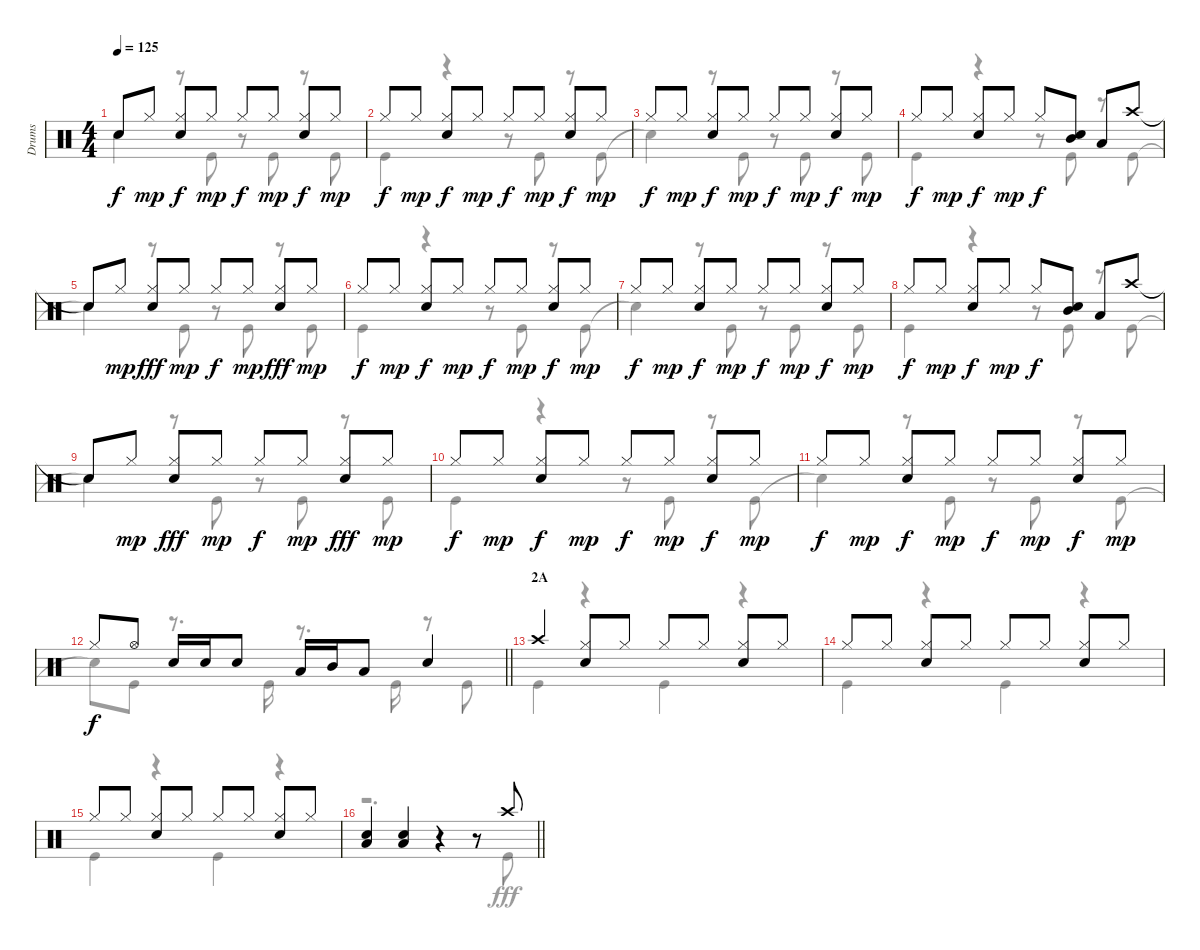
\track ("Drums" "Drums") {instrument percussion}
\staff {score}
\articulation defaults
\voice
\ts (4 4)
\tempo 125
\clef neutral
\ks c "Snare (hit)"{t}.8{dy f} "Hi-Hat (closed)".8{dy mp}
("Hi-Hat (closed)" "Snare (hit) 2").8{dy f} "Hi-Hat (closed)".8{dy mp} "Hi-Hat (closed)".8{dy f} "Hi-Hat (closed)".8{dy mp} ("Hi-Hat (closed)" "Snare (hit) 2").8{dy f} "Hi-Hat (closed)".8{dy mp} |
"Hi-Hat (closed)".8{dy f} "Hi-Hat (closed)".8{dy mp} ("Hi-Hat (closed)" "Snare (hit) 2").8{dy f} "Hi-Hat (closed)".8{dy mp} "Hi-Hat (closed)".8{dy f} "Hi-Hat (closed)".8{dy mp} ("Hi-Hat (closed)" "Snare (hit) 2").8{dy f} "Hi-Hat (closed)".8{dy mp} |
"Hi-Hat (closed)".8{dy f} "Hi-Hat (closed)".8{dy mp} ("Hi-Hat (closed)" "Snare (hit) 2").8{dy f} "Hi-Hat (closed)".8{dy mp} "Hi-Hat (closed)".8{dy f} "Hi-Hat (closed)".8{dy mp} ("Hi-Hat (closed)" "Snare (hit) 2").8{dy f} "Hi-Hat (closed)".8{dy mp} |
"Hi-Hat (closed)".8{dy f} "Hi-Hat (closed)".8{dy mp} ("Hi-Hat (closed)" "Snare (hit) 2").8{dy f} "Hi-Hat (closed)".8{dy mp} "Hi-Hat (closed)".8{dy f} ("Snare (hit) 2" "Mid Tom (hit)").8 "Low Tom (hit)".8 "Crash high (hit)".8 |
"Snare (hit)"{t}.8 "Hi-Hat (closed)".8{dy mp} ("Hi-Hat (closed)" "Snare (hit) 2").8{dy fff} "Hi-Hat (closed)".8{dy mp} "Hi-Hat (closed)".8{dy f} "Hi-Hat (closed)".8{dy mp} ("Hi-Hat (closed)" "Snare (hit) 2").8{dy fff} "Hi-Hat (closed)".8{dy mp} |
"Hi-Hat (closed)".8{dy f} "Hi-Hat (closed)".8{dy mp} ("Hi-Hat (closed)" "Snare (hit) 2").8{dy f} "Hi-Hat (closed)".8{dy mp} "Hi-Hat (closed)".8{dy f} "Hi-Hat (closed)".8{dy mp} ("Hi-Hat (closed)" "Snare (hit) 2").8{dy f} "Hi-Hat (closed)".8{dy mp} |
"Hi-Hat (closed)".8{dy f} "Hi-Hat (closed)".8{dy mp} ("Hi-Hat (closed)" "Snare (hit) 2").8{dy f} "Hi-Hat (closed)".8{dy mp} "Hi-Hat (closed)".8{dy f} "Hi-Hat (closed)".8{dy mp} ("Hi-Hat (closed)" "Snare (hit) 2").8{dy f} "Hi-Hat (closed)".8{dy mp} |
"Hi-Hat (closed)".8{dy f} "Hi-Hat (closed)".8{dy mp} ("Hi-Hat (closed)" "Snare (hit) 2").8{dy f} "Hi-Hat (closed)".8{dy mp} "Hi-Hat (closed)".8{dy f} ("Snare (hit) 2" "Mid Tom (hit)").8 "Low Tom (hit)".8 "Crash high (hit)".8 |
"Snare (hit)"{t}.8 "Hi-Hat (closed)".8{dy mp} ("Hi-Hat (closed)" "Snare (hit) 2").8{dy fff} "Hi-Hat (closed)".8{dy mp} "Hi-Hat (closed)".8{dy f} "Hi-Hat (closed)".8{dy mp} ("Hi-Hat (closed)" "Snare (hit) 2").8{dy fff} "Hi-Hat (closed)".8{dy mp} |
"Hi-Hat (closed)".8{dy f} "Hi-Hat (closed)".8{dy mp} ("Hi-Hat (closed)" "Snare (hit) 2").8{dy f} "Hi-Hat (closed)".8{dy mp} "Hi-Hat (closed)".8{dy f} "Hi-Hat (closed)".8{dy mp} ("Hi-Hat (closed)" "Snare (hit) 2").8{dy f} "Hi-Hat (closed)".8{dy mp} |
"Hi-Hat (closed)".8{dy f} "Hi-Hat (closed)".8{dy mp} ("Hi-Hat (closed)" "Snare (hit) 2").8{dy f} "Hi-Hat (closed)".8{dy mp} "Hi-Hat (closed)".8{dy f} "Hi-Hat (closed)".8{dy mp} ("Hi-Hat (closed)" "Snare (hit) 2").8{dy f} "Hi-Hat (closed)".8{dy mp} |
\barLineRight lightlight "Hi-Hat (closed)".8{dy f} "Hi-Hat (open)".8 "Snare (hit) 2".16 "Snare (hit) 2".16 "Snare (hit) 2".8 "Low Tom (hit)".16 "Mid Tom (hit)".16 "Low Tom (hit)".8 "Snare (hit) 2".4
|
\section ("" "2A")
"Crash high (hit)".4 ("Hi-Hat (closed)" "Snare (hit) 2").8 "Hi-Hat (closed)".8 "Hi-Hat (closed)".8 "Hi-Hat (closed)".8 ("Hi-Hat (closed)" "Snare (hit) 2").8 "Hi-Hat (closed)".8 |
"Hi-Hat (closed)".8 "Hi-Hat (closed)".8 ("Hi-Hat (closed)" "Snare (hit) 2").8 "Hi-Hat (closed)".8 "Hi-Hat (closed)".8 "Hi-Hat (closed)".8 ("Hi-Hat (closed)" "Snare (hit) 2").8 "Hi-Hat (closed)".8 |
"Hi-Hat (closed)".8 "Hi-Hat (closed)".8 ("Hi-Hat (closed)" "Snare (hit) 2").8 "Hi-Hat (closed)".8 "Hi-Hat (closed)".8 "Hi-Hat (closed)".8 ("Hi-Hat (closed)" "Snare (hit) 2").8 "Hi-Hat (closed)".8 |
\barLineRight lightlight
("Low Tom (hit)" "Snare (hit) 2").4 ("Low Tom (hit)" "Snare (hit) 2").4 r.4 r.8 "Crash high (hit)".8
\voice
\clef neutral
\ottava regular
\simile none
\ks c "Snare (hit)"{t}.4{dy f}
r.8 "Kick (hit)".8 r.8 "Kick (hit)".8 r.8 "Kick (hit)".8 |
"Kick (hit)".4 r.4 r.8 "Kick (hit)".8 r.8 "Kick (hit)".8 |
"Snare (hit)"{t}.4 r.8 "Kick (hit)".8 r.8 "Kick (hit)".8 r.8 "Kick (hit)".8 |
"Kick (hit)".4 r.4 r.8 "Kick (hit)".8 r.8 "Kick (hit)".8 |
"Snare (hit)"{t}.4 r.8 "Kick (hit)".8 r.8 "Kick (hit)".8 r.8 "Kick (hit)".8 |
"Kick (hit)".4 r.4 r.8 "Kick (hit)".8 r.8 "Kick (hit)".8 |
"Snare (hit)"{t}.4 r.8 "Kick (hit)".8 r.8 "Kick (hit)".8 r.8 "Kick (hit)".8 |
"Kick (hit)".4 r.4 r.8 "Kick (hit)".8 r.8 "Kick (hit)".8 |
"Snare (hit)"{t}.4 r.8 "Kick (hit)".8 r.8 "Kick (hit)".8 r.8 "Kick (hit)".8 |
"Kick (hit)".4 r.4 r.8 "Kick (hit)".8 r.8 "Kick (hit)".8 |
"Snare (hit)"{t}.4 r.8 "Kick (hit)".8 r.8 "Kick (hit)".8 r.8 "Kick (hit)".8 |
\barLineRight lightlight "Snare (hit)"{t}.8 "Kick (hit)".8
r.8{d} "Kick (hit)".16 r.8{d} "Kick (hit)".16 r.8 "Kick (hit)".8 |
"Kick (hit)".4 r.4 "Kick (hit)".4 r.4 |
"Kick (hit)".4 r.4 "Kick (hit)".4 r.4 |
"Kick (hit)".4 r.4 "Kick (hit)".4 r.4 |
\barLineRight lightlight
r.2{d} r.8 "Kick (hit)".8{dy fff}
